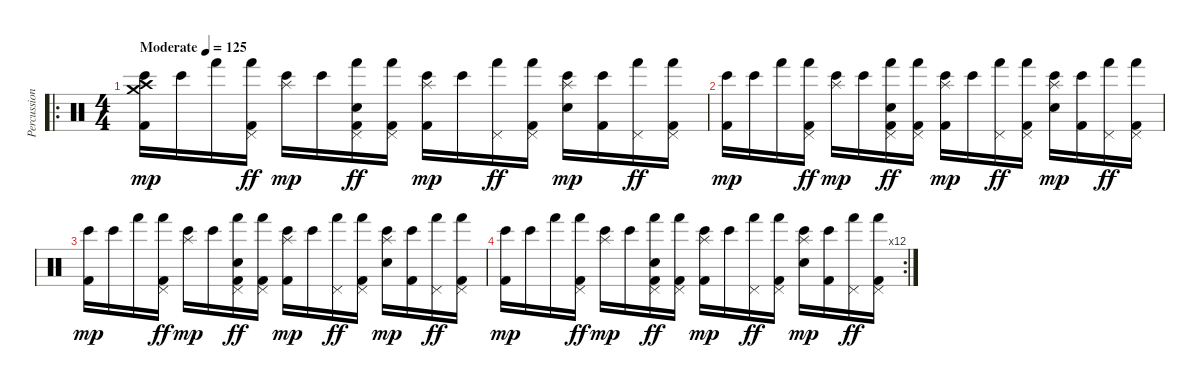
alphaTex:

\track ("Percussion" "Percussion") {instrument percussion}
\staff {score}
\articulation defaults
\ro
\ts (4 4)
\tempo (125 "Moderate")
\clef neutral
\ks c
("Kick (hit) 2" "Bongo High (hit)" "Crash high (hit)" "Crash medium (hit)").16{dy mp} "Bongo High (hit)".16 "Hand (hit)".16 ("Kick (hit) 2" "Hand (hit)" "Pedal Hi-Hat (hit)").16{dy ff} ("Bongo High (hit)" "Splash (hit)").16{dy mp} "Bongo High (hit)".16 ("Kick (hit) 2" "Snare (hit) 2" "Hand (hit)" "Pedal Hi-Hat (hit)").16{dy ff} ("Kick (hit) 2" "Hand (hit)" "Pedal Hi-Hat (hit)").16 ("Kick (hit) 2" "Bongo High (hit)" "Splash (hit)").16{dy mp} "Bongo High (hit)".16 ("Hand (hit)" "Pedal Hi-Hat (hit)").16{dy ff} ("Kick (hit) 2" "Hand (hit)" "Pedal Hi-Hat (hit)").16 ("Snare (hit) 2" "Bongo High (hit)" "Splash (hit)").16{dy mp} ("Kick (hit) 2" "Bongo High (hit)").16 ("Hand (hit)" "Pedal Hi-Hat (hit)").16{dy ff} ("Kick (hit) 2" "Hand (hit)" "Pedal Hi-Hat (hit)").16 |
("Kick (hit) 2" "Bongo High (hit)").16{dy mp} "Bongo High (hit)".16 "Hand (hit)".16 ("Kick (hit) 2" "Hand (hit)" "Pedal Hi-Hat (hit)").16{dy ff} ("Bongo High (hit)" "Splash (hit)").16{dy mp} "Bongo High (hit)".16 ("Kick (hit) 2" "Snare (hit) 2" "Hand (hit)" "Pedal Hi-Hat (hit)").16{dy ff} ("Kick (hit) 2" "Hand (hit)" "Pedal Hi-Hat (hit)").16 ("Kick (hit) 2" "Bongo High (hit)" "Splash (hit)").16{dy mp} "Bongo High (hit)".16 ("Hand (hit)" "Pedal Hi-Hat (hit)").16{dy ff} ("Kick (hit) 2" "Hand (hit)" "Pedal Hi-Hat (hit)").16 ("Snare (hit) 2" "Bongo High (hit)" "Splash (hit)").16{dy mp} ("Kick (hit) 2" "Bongo High (hit)").16 ("Hand (hit)" "Pedal Hi-Hat (hit)").16{dy ff} ("Kick (hit) 2" "Hand (hit)" "Pedal Hi-Hat (hit)").16 |
("Kick (hit) 2" "Bongo High (hit)").16{dy mp} "Bongo High (hit)".16 "Hand (hit)".16 ("Kick (hit) 2" "Hand (hit)" "Pedal Hi-Hat (hit)").16{dy ff} ("Bongo High (hit)" "Splash (hit)").16{dy mp} "Bongo High (hit)".16 ("Kick (hit) 2" "Snare (hit) 2" "Hand (hit)" "Pedal Hi-Hat (hit)").16{dy ff} ("Kick (hit) 2" "Hand (hit)" "Pedal Hi-Hat (hit)").16 ("Kick (hit) 2" "Bongo High (hit)" "Splash (hit)").16{dy mp} "Bongo High (hit)".16 ("Hand (hit)" "Pedal Hi-Hat (hit)").16{dy ff} ("Kick (hit) 2" "Hand (hit)" "Pedal Hi-Hat (hit)").16 ("Snare (hit) 2" "Bongo High (hit)" "Splash (hit)").16{dy mp} ("Kick (hit) 2" "Bongo High (hit)").16 ("Hand (hit)" "Pedal Hi-Hat (hit)").16{dy ff} ("Kick (hit) 2" "Hand (hit)" "Pedal Hi-Hat (hit)").16 |
\rc 12
("Kick (hit) 2" "Bongo High (hit)").16{dy mp} "Bongo High (hit)".16 "Hand (hit)".16 ("Kick (hit) 2" "Hand (hit)" "Pedal Hi-Hat (hit)").16{dy ff} ("Bongo High (hit)" "Splash (hit)").16{dy mp} "Bongo High (hit)".16 ("Kick (hit) 2" "Snare (hit) 2" "Hand (hit)" "Pedal Hi-Hat (hit)").16{dy ff} ("Kick (hit) 2" "Hand (hit)" "Pedal Hi-Hat (hit)").16 ("Kick (hit) 2" "Bongo High (hit)" "Splash (hit)").16{dy mp} "Bongo High (hit)".16 ("Hand (hit)" "Pedal Hi-Hat (hit)").16{dy ff} ("Kick (hit) 2" "Hand (hit)" "Pedal Hi-Hat (hit)").16 ("Snare (hit) 2" "Bongo High (hit)" "Splash (hit)").16{dy mp} ("Kick (hit) 2" "Bongo High (hit)").16 ("Hand (hit)" "Pedal Hi-Hat (hit)").16{dy ff} ("Kick (hit) 2" "Hand (hit)" "Pedal Hi-Hat (hit)").16
